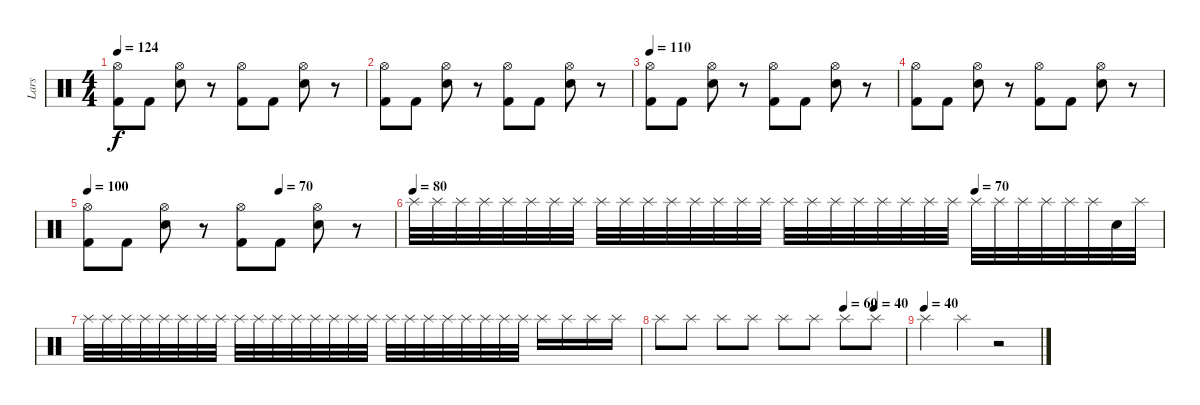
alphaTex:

\track ("Lars" "Lars") {instrument percussion}
\staff {score}
\articulation defaults
\ts (4 4)
\tempo 124
\clef neutral
\ks c
("Kick (hit) 2" "Hi-Hat (open)").8{dy f} "Kick (hit) 2".8 ("Snare (hit) 2" "Hi-Hat (open)").8 r.8 ("Kick (hit) 2" "Hi-Hat (open)").8 "Kick (hit) 2".8 ("Snare (hit) 2" "Hi-Hat (open)").8 r.8 |
("Kick (hit) 2" "Hi-Hat (open)").8 "Kick (hit) 2".8 ("Snare (hit) 2" "Hi-Hat (open)").8 r.8 ("Kick (hit) 2" "Hi-Hat (open)").8 "Kick (hit) 2".8 ("Snare (hit) 2" "Hi-Hat (open)").8 r.8 |
\tempo 110
("Kick (hit) 2" "Hi-Hat (open)").8 "Kick (hit) 2".8 ("Snare (hit) 2" "Hi-Hat (open)").8 r.8 ("Kick (hit) 2" "Hi-Hat (open)").8 "Kick (hit) 2".8 ("Snare (hit) 2" "Hi-Hat (open)").8 r.8 |
("Kick (hit) 2" "Hi-Hat (open)").8 "Kick (hit) 2".8 ("Snare (hit) 2" "Hi-Hat (open)").8 r.8 ("Kick (hit) 2" "Hi-Hat (open)").8 "Kick (hit) 2".8 ("Snare (hit) 2" "Hi-Hat (open)").8 r.8 |
\tempo 100
\tempo (70 0.625)
("Kick (hit) 2" "Hi-Hat (open)").8 "Kick (hit) 2".8 ("Snare (hit) 2" "Hi-Hat (open)").8 r.8 ("Kick (hit) 2" "Hi-Hat (open)").8 "Kick (hit) 2".8 ("Snare (hit) 2" "Hi-Hat (open)").8 r.8 |
\tempo 80
\tempo (70 0.75)
"Splash (hit)".32 "Splash (hit)".32 "Splash (hit)".32 "Splash (hit)".32 "Splash (hit)".32 "Splash (hit)".32 "Splash (hit)".32 "Splash (hit)".32 "Splash (hit)".32 "Splash (hit)".32 "Splash (hit)".32 "Splash (hit)".32 "Splash (hit)".32 "Splash (hit)".32 "Splash (hit)".32 "Splash (hit)".32 "Splash (hit)".32 "Splash (hit)".32 "Splash (hit)".32 "Splash (hit)".32 "Splash (hit)".32 "Splash (hit)".32 "Splash (hit)".32 "Splash (hit)".32 "Splash (hit)".32 "Splash (hit)".32 "Splash (hit)".32 "Splash (hit)".32 "Splash (hit)".32 "Splash (hit)".32 "Snare (hit)".32 "Splash (hit)".32 |
"Splash (hit)".32 "Splash (hit)".32 "Splash (hit)".32 "Splash (hit)".32 "Splash (hit)".32 "Splash (hit)".32 "Splash (hit)".32 "Splash (hit)".32 "Splash (hit)".32 "Splash (hit)".32 "Splash (hit)".32 "Splash (hit)".32 "Splash (hit)".32 "Splash (hit)".32 "Splash (hit)".32 "Splash (hit)".32 "Splash (hit)".32 "Splash (hit)".32 "Splash (hit)".32 "Splash (hit)".32 "Splash (hit)".32 "Splash (hit)".32 "Splash (hit)".32 "Splash (hit)".32 "Splash (hit)".16 "Splash (hit)".16 "Splash (hit)".16 "Splash (hit)".16 |
\tempo (60 0.75)
\tempo (40 0.875)
"Splash (hit)".8 "Splash (hit)".8 "Splash (hit)".8 "Splash (hit)".8 "Splash (hit)".8 "Splash (hit)".8 "Splash (hit)".8 "Splash (hit)".8 |
\tempo (40)
"Splash (hit)".4 "Splash (hit)".4 r.2
